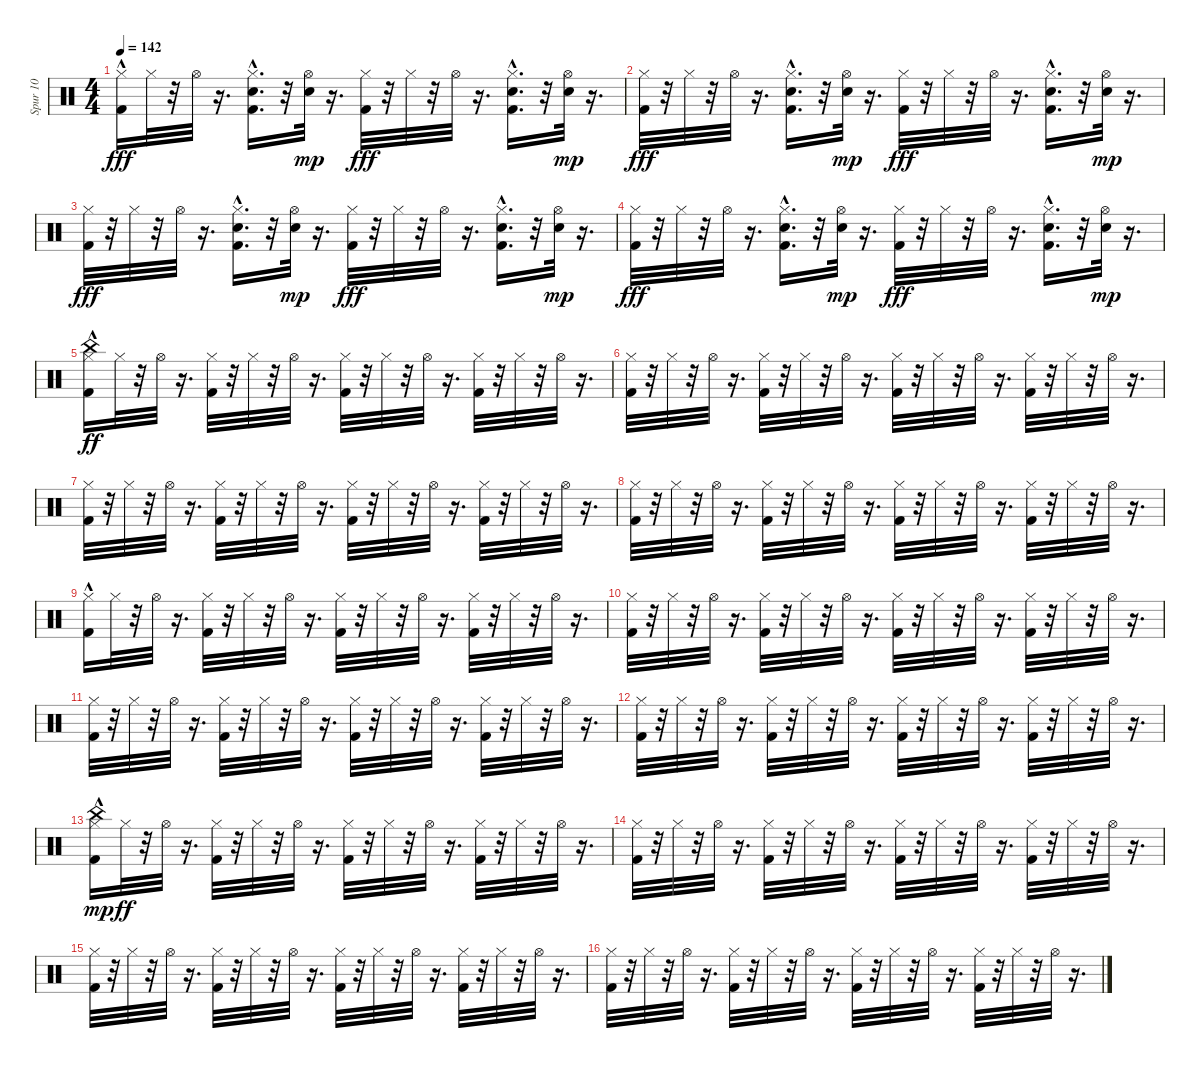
\track ("Spur 10" "Spur 10") {instrument percussion}
\staff {score}
\articulation defaults
\ts (4 4)
\tempo 142
\clef neutral
\ks c
("Kick (hit) 2"{hac} "Hi-Hat (closed)").16{dy fff} "Hi-Hat (closed)".32 r.32 "Hi-Hat (open)".32 r.16{d} ("Kick (hit) 2" "Hi-Hat (closed)" "Hand Clap (hit)"{hac}).16{d balance 16} r.32 ("Hi-Hat (open)" "Hand Clap (hit)").32{dy mp balance 0} r.16{d} ("Kick (hit) 2" "Hi-Hat (closed)").32{dy fff} r.32 "Hi-Hat (closed)".32 r.32 "Hi-Hat (open)".32 r.16{d} ("Kick (hit) 2" "Hi-Hat (closed)" "Hand Clap (hit)"{hac}).16{d balance 16} r.32 ("Hi-Hat (open)" "Hand Clap (hit)").32{dy mp balance 0} r.16{d} |
("Kick (hit) 2" "Hi-Hat (closed)").32{dy fff} r.32 "Hi-Hat (closed)".32 r.32 "Hi-Hat (open)".32 r.16{d} ("Kick (hit) 2" "Hi-Hat (closed)" "Hand Clap (hit)"{hac}).16{d balance 16} r.32 ("Hi-Hat (open)" "Hand Clap (hit)").32{dy mp balance 0} r.16{d} ("Kick (hit) 2" "Hi-Hat (closed)").32{dy fff} r.32 "Hi-Hat (closed)".32 r.32 "Hi-Hat (open)".32 r.16{d} ("Kick (hit) 2" "Hi-Hat (closed)" "Hand Clap (hit)"{hac}).16{d balance 16} r.32 ("Hi-Hat (open)" "Hand Clap (hit)").32{dy mp balance 0} r.16{d} |
("Kick (hit) 2" "Hi-Hat (closed)").32{dy fff} r.32 "Hi-Hat (closed)".32 r.32 "Hi-Hat (open)".32 r.16{d} ("Kick (hit) 2" "Hi-Hat (closed)" "Hand Clap (hit)"{hac}).16{d balance 16} r.32 ("Hi-Hat (open)" "Hand Clap (hit)").32{dy mp balance 0} r.16{d} ("Kick (hit) 2" "Hi-Hat (closed)").32{dy fff} r.32 "Hi-Hat (closed)".32 r.32 "Hi-Hat (open)".32 r.16{d} ("Kick (hit) 2" "Hi-Hat (closed)" "Hand Clap (hit)"{hac}).16{d balance 16} r.32 ("Hi-Hat (open)" "Hand Clap (hit)").32{dy mp balance 0} r.16{d} |
("Kick (hit) 2" "Hi-Hat (closed)").32{dy fff} r.32 "Hi-Hat (closed)".32 r.32 "Hi-Hat (open)".32 r.16{d} ("Kick (hit) 2" "Hi-Hat (closed)" "Hand Clap (hit)"{hac}).16{d balance 16} r.32 ("Hi-Hat (open)" "Hand Clap (hit)").32{dy mp balance 0} r.16{d} ("Kick (hit) 2" "Hi-Hat (closed)").32{dy fff} r.32 "Hi-Hat (closed)".32 r.32 "Hi-Hat (open)".32 r.16{d} ("Kick (hit) 2" "Hi-Hat (closed)" "Hand Clap (hit)"{hac}).16{d balance 16} r.32 ("Hi-Hat (open)" "Hand Clap (hit)").32{dy mp balance 0} r.16{d} |
("Kick (hit) 2"{hac} "Hi-Hat (closed)" "China (hit)").16{dy ff} "Hi-Hat (closed)".32 r.32 "Hi-Hat (open)".32 r.16{d} ("Kick (hit) 2" "Hi-Hat (closed)").32 r.32 "Hi-Hat (closed)".32 r.32 "Hi-Hat (open)".32 r.16{d} ("Kick (hit) 2" "Hi-Hat (closed)").32 r.32 "Hi-Hat (closed)".32 r.32 "Hi-Hat (open)".32 r.16{d} ("Kick (hit) 2" "Hi-Hat (closed)").32 r.32 "Hi-Hat (closed)".32 r.32 "Hi-Hat (open)".32 r.16{d} |
("Kick (hit) 2" "Hi-Hat (closed)").32 r.32 "Hi-Hat (closed)".32 r.32 "Hi-Hat (open)".32 r.16{d} ("Kick (hit) 2" "Hi-Hat (closed)").32 r.32 "Hi-Hat (closed)".32 r.32 "Hi-Hat (open)".32 r.16{d} ("Kick (hit) 2" "Hi-Hat (closed)").32 r.32 "Hi-Hat (closed)".32 r.32 "Hi-Hat (open)".32 r.16{d} ("Kick (hit) 2" "Hi-Hat (closed)").32 r.32 "Hi-Hat (closed)".32 r.32 "Hi-Hat (open)".32 r.16{d} |
("Kick (hit) 2" "Hi-Hat (closed)").32 r.32 "Hi-Hat (closed)".32 r.32 "Hi-Hat (open)".32 r.16{d} ("Kick (hit) 2" "Hi-Hat (closed)").32 r.32 "Hi-Hat (closed)".32 r.32 "Hi-Hat (open)".32 r.16{d} ("Kick (hit) 2" "Hi-Hat (closed)").32 r.32 "Hi-Hat (closed)".32 r.32 "Hi-Hat (open)".32 r.16{d} ("Kick (hit) 2" "Hi-Hat (closed)").32 r.32 "Hi-Hat (closed)".32 r.32 "Hi-Hat (open)".32 r.16{d} |
("Kick (hit) 2" "Hi-Hat (closed)").32 r.32 "Hi-Hat (closed)".32 r.32 "Hi-Hat (open)".32 r.16{d} ("Kick (hit) 2" "Hi-Hat (closed)").32 r.32 "Hi-Hat (closed)".32 r.32 "Hi-Hat (open)".32 r.16{d} ("Kick (hit) 2" "Hi-Hat (closed)").32 r.32 "Hi-Hat (closed)".32 r.32 "Hi-Hat (open)".32 r.16{d} ("Kick (hit) 2" "Hi-Hat (closed)").32 r.32 "Hi-Hat (closed)".32 r.32 "Hi-Hat (open)".32 r.16{d} |
("Kick (hit) 2"{hac} "Hi-Hat (closed)").16 "Hi-Hat (closed)".32 r.32 "Hi-Hat (open)".32 r.16{d} ("Kick (hit) 2" "Hi-Hat (closed)").32 r.32 "Hi-Hat (closed)".32 r.32 "Hi-Hat (open)".32 r.16{d} ("Kick (hit) 2" "Hi-Hat (closed)").32 r.32 "Hi-Hat (closed)".32 r.32 "Hi-Hat (open)".32 r.16{d} ("Kick (hit) 2" "Hi-Hat (closed)").32 r.32 "Hi-Hat (closed)".32 r.32 "Hi-Hat (open)".32 r.16{d} |
("Kick (hit) 2" "Hi-Hat (closed)").32 r.32 "Hi-Hat (closed)".32 r.32 "Hi-Hat (open)".32 r.16{d} ("Kick (hit) 2" "Hi-Hat (closed)").32 r.32 "Hi-Hat (closed)".32 r.32 "Hi-Hat (open)".32 r.16{d} ("Kick (hit) 2" "Hi-Hat (closed)").32 r.32 "Hi-Hat (closed)".32 r.32 "Hi-Hat (open)".32 r.16{d} ("Kick (hit) 2" "Hi-Hat (closed)").32 r.32 "Hi-Hat (closed)".32 r.32 "Hi-Hat (open)".32 r.16{d} |
("Kick (hit) 2" "Hi-Hat (closed)").32 r.32 "Hi-Hat (closed)".32 r.32 "Hi-Hat (open)".32 r.16{d} ("Kick (hit) 2" "Hi-Hat (closed)").32 r.32 "Hi-Hat (closed)".32 r.32 "Hi-Hat (open)".32 r.16{d} ("Kick (hit) 2" "Hi-Hat (closed)").32 r.32 "Hi-Hat (closed)".32 r.32 "Hi-Hat (open)".32 r.16{d} ("Kick (hit) 2" "Hi-Hat (closed)").32 r.32 "Hi-Hat (closed)".32 r.32 "Hi-Hat (open)".32 r.16{d} |
("Kick (hit) 2" "Hi-Hat (closed)").32 r.32 "Hi-Hat (closed)".32 r.32 "Hi-Hat (open)".32 r.16{d} ("Kick (hit) 2" "Hi-Hat (closed)").32 r.32 "Hi-Hat (closed)".32 r.32 "Hi-Hat (open)".32 r.16{d} ("Kick (hit) 2" "Hi-Hat (closed)").32 r.32 "Hi-Hat (closed)".32 r.32 "Hi-Hat (open)".32 r.16{d} ("Kick (hit) 2" "Hi-Hat (closed)").32 r.32 "Hi-Hat (closed)".32 r.32 "Hi-Hat (open)".32 r.16{d} |
("Kick (hit) 2"{hac} "Hi-Hat (closed)" "China (hit)").16{dy mp} "Hi-Hat (closed)".32{dy ff} r.32 "Hi-Hat (open)".32 r.16{d} ("Kick (hit) 2" "Hi-Hat (closed)").32 r.32 "Hi-Hat (closed)".32 r.32 "Hi-Hat (open)".32 r.16{d} ("Kick (hit) 2" "Hi-Hat (closed)").32 r.32 "Hi-Hat (closed)".32 r.32 "Hi-Hat (open)".32 r.16{d} ("Kick (hit) 2" "Hi-Hat (closed)").32 r.32 "Hi-Hat (closed)".32 r.32 "Hi-Hat (open)".32 r.16{d} |
("Kick (hit) 2" "Hi-Hat (closed)").32 r.32 "Hi-Hat (closed)".32 r.32 "Hi-Hat (open)".32 r.16{d} ("Kick (hit) 2" "Hi-Hat (closed)").32 r.32 "Hi-Hat (closed)".32 r.32 "Hi-Hat (open)".32 r.16{d} ("Kick (hit) 2" "Hi-Hat (closed)").32 r.32 "Hi-Hat (closed)".32 r.32 "Hi-Hat (open)".32 r.16{d} ("Kick (hit) 2" "Hi-Hat (closed)").32 r.32 "Hi-Hat (closed)".32 r.32 "Hi-Hat (open)".32 r.16{d} |
("Kick (hit) 2" "Hi-Hat (closed)").32 r.32 "Hi-Hat (closed)".32 r.32 "Hi-Hat (open)".32 r.16{d} ("Kick (hit) 2" "Hi-Hat (closed)").32 r.32 "Hi-Hat (closed)".32 r.32 "Hi-Hat (open)".32 r.16{d} ("Kick (hit) 2" "Hi-Hat (closed)").32 r.32 "Hi-Hat (closed)".32 r.32 "Hi-Hat (open)".32 r.16{d} ("Kick (hit) 2" "Hi-Hat (closed)").32 r.32 "Hi-Hat (closed)".32 r.32 "Hi-Hat (open)".32 r.16{d} |
("Kick (hit) 2" "Hi-Hat (closed)").32 r.32 "Hi-Hat (closed)".32 r.32 "Hi-Hat (open)".32 r.16{d} ("Kick (hit) 2" "Hi-Hat (closed)").32 r.32 "Hi-Hat (closed)".32 r.32 "Hi-Hat (open)".32 r.16{d} ("Kick (hit) 2" "Hi-Hat (closed)").32 r.32 "Hi-Hat (closed)".32 r.32 "Hi-Hat (open)".32 r.16{d} ("Kick (hit) 2" "Hi-Hat (closed)").32 r.32 "Hi-Hat (closed)".32 r.32 "Hi-Hat (open)".32 r.16{d}
